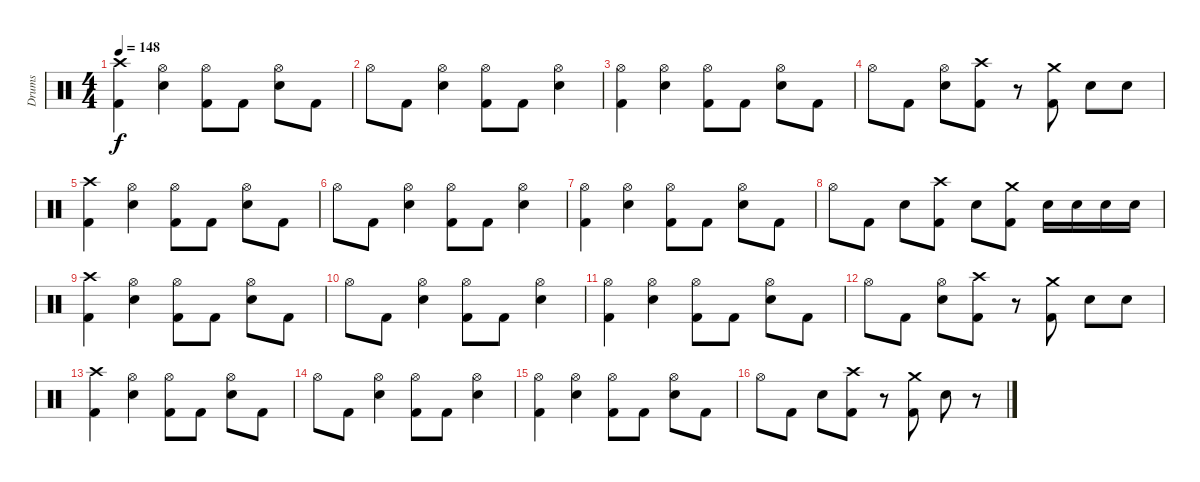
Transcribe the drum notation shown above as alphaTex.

\track ("Drums" "Drums") {instrument percussion}
\staff {score}
\articulation defaults
\ts (4 4)
\tempo 148
\clef neutral
\ks c
("Crash high (hit)" "Kick (hit) 2").4{dy f} ("Hi-Hat (open)" "Snare (hit) 2").4 ("Hi-Hat (open)" "Kick (hit) 2").8 "Kick (hit) 2".8 ("Hi-Hat (open)" "Snare (hit) 2").8 "Kick (hit) 2".8 |
"Hi-Hat (open)".8 "Kick (hit) 2".8 ("Hi-Hat (open)" "Snare (hit) 2").4 ("Hi-Hat (open)" "Kick (hit) 2").8 "Kick (hit) 2".8 ("Hi-Hat (open)" "Snare (hit) 2").4 |
("Hi-Hat (open)" "Kick (hit) 2").4 ("Hi-Hat (open)" "Snare (hit) 2").4 ("Hi-Hat (open)" "Kick (hit) 2").8 "Kick (hit) 2".8 ("Hi-Hat (open)" "Snare (hit) 2").8 "Kick (hit) 2".8 |
"Hi-Hat (open)".8 "Kick (hit) 2".8 ("Hi-Hat (open)" "Snare (hit) 2").8 ("Crash high (hit)" "Kick (hit) 2").8 r.8 ("Crash medium (hit)" "Kick (hit) 2").8 "Snare (hit) 2".8 "Snare (hit) 2".8 |
("Crash high (hit)" "Kick (hit) 2").4 ("Hi-Hat (open)" "Snare (hit) 2").4 ("Hi-Hat (open)" "Kick (hit) 2").8 "Kick (hit) 2".8 ("Hi-Hat (open)" "Snare (hit) 2").8 "Kick (hit) 2".8 |
"Hi-Hat (open)".8 "Kick (hit) 2".8 ("Hi-Hat (open)" "Snare (hit) 2").4 ("Hi-Hat (open)" "Kick (hit) 2").8 "Kick (hit) 2".8 ("Hi-Hat (open)" "Snare (hit) 2").4 |
("Hi-Hat (open)" "Kick (hit) 2").4 ("Hi-Hat (open)" "Snare (hit) 2").4 ("Hi-Hat (open)" "Kick (hit) 2").8 "Kick (hit) 2".8 ("Hi-Hat (open)" "Snare (hit) 2").8 "Kick (hit) 2".8 |
"Hi-Hat (open)".8 "Kick (hit) 2".8 "Snare (hit) 2".8 ("Crash high (hit)" "Kick (hit) 2").8 "Snare (hit) 2".8 ("Crash medium (hit)" "Kick (hit) 2").8 "Snare (hit) 2".16 "Snare (hit) 2".16 "Snare (hit) 2".16 "Snare (hit) 2".16 |
("Crash high (hit)" "Kick (hit) 2").4 ("Hi-Hat (open)" "Snare (hit) 2").4 ("Hi-Hat (open)" "Kick (hit) 2").8 "Kick (hit) 2".8 ("Hi-Hat (open)" "Snare (hit) 2").8 "Kick (hit) 2".8 |
"Hi-Hat (open)".8 "Kick (hit) 2".8 ("Hi-Hat (open)" "Snare (hit) 2").4 ("Hi-Hat (open)" "Kick (hit) 2").8 "Kick (hit) 2".8 ("Hi-Hat (open)" "Snare (hit) 2").4 |
("Hi-Hat (open)" "Kick (hit) 2").4 ("Hi-Hat (open)" "Snare (hit) 2").4 ("Hi-Hat (open)" "Kick (hit) 2").8 "Kick (hit) 2".8 ("Hi-Hat (open)" "Snare (hit) 2").8 "Kick (hit) 2".8 |
"Hi-Hat (open)".8 "Kick (hit) 2".8 ("Hi-Hat (open)" "Snare (hit) 2").8 ("Crash high (hit)" "Kick (hit) 2").8 r.8 ("Crash medium (hit)" "Kick (hit) 2").8 "Snare (hit) 2".8 "Snare (hit) 2".8 |
("Crash high (hit)" "Kick (hit) 2").4 ("Hi-Hat (open)" "Snare (hit) 2").4 ("Hi-Hat (open)" "Kick (hit) 2").8 "Kick (hit) 2".8 ("Hi-Hat (open)" "Snare (hit) 2").8 "Kick (hit) 2".8 |
"Hi-Hat (open)".8 "Kick (hit) 2".8 ("Hi-Hat (open)" "Snare (hit) 2").4 ("Hi-Hat (open)" "Kick (hit) 2").8 "Kick (hit) 2".8 ("Hi-Hat (open)" "Snare (hit) 2").4 |
("Hi-Hat (open)" "Kick (hit) 2").4 ("Hi-Hat (open)" "Snare (hit) 2").4 ("Hi-Hat (open)" "Kick (hit) 2").8 "Kick (hit) 2".8 ("Hi-Hat (open)" "Snare (hit) 2").8 "Kick (hit) 2".8 |
"Hi-Hat (open)".8 "Kick (hit) 2".8 "Snare (hit) 2".8 ("Crash high (hit)" "Kick (hit) 2").8 r.8 ("Crash medium (hit)" "Kick (hit) 2").8 "Snare (hit) 2".8 r.8
